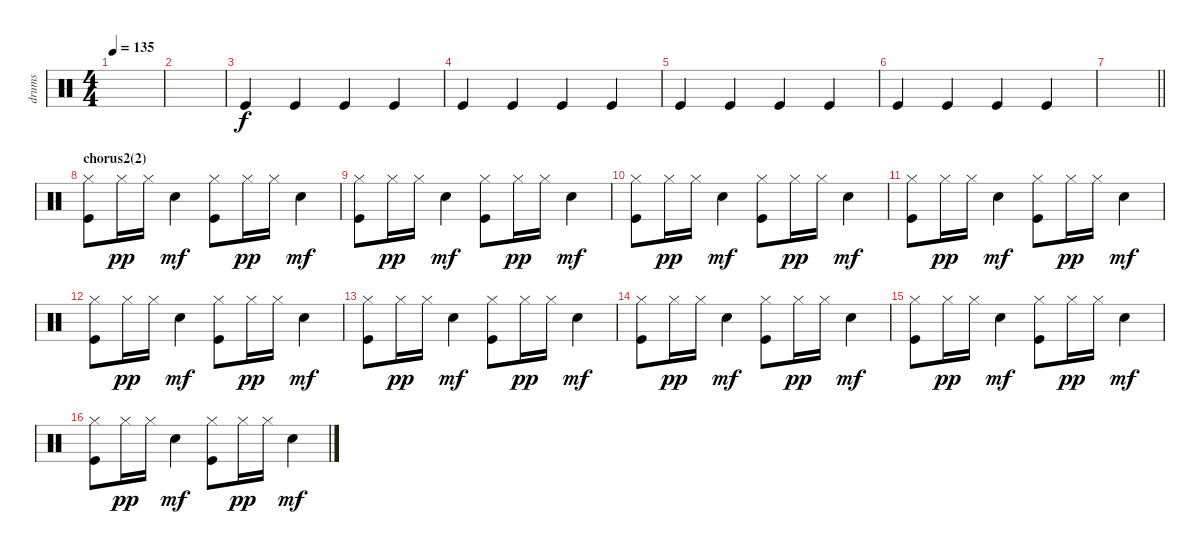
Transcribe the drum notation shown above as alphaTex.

\track ("drums" "drums") {instrument percussion}
\staff {score}
\articulation defaults
\ts (4 4)
\tempo 135
\clef neutral
\ks c
|
|
"Kick (hit)".4 "Kick (hit)".4 "Kick (hit)".4 "Kick (hit)".4 |
"Kick (hit)".4 "Kick (hit)".4 "Kick (hit)".4 "Kick (hit)".4 |
"Kick (hit)".4 "Kick (hit)".4 "Kick (hit)".4 "Kick (hit)".4 |
"Kick (hit)".4 "Kick (hit)".4 "Kick (hit)".4 "Kick (hit)".4 |
\barLineRight lightlight
|
\section ("" "chorus2(2)")
("Hi-Hat (closed)" "Kick (hit)").8 "Hi-Hat (closed)".16{dy pp} "Hi-Hat (closed)".16 "Snare (hit) 2".4{dy mf} ("Hi-Hat (closed)" "Kick (hit)").8 "Hi-Hat (closed)".16{dy pp} "Hi-Hat (closed)".16 "Snare (hit) 2".4{dy mf} |
("Hi-Hat (closed)" "Kick (hit)").8 "Hi-Hat (closed)".16{dy pp} "Hi-Hat (closed)".16 "Snare (hit) 2".4{dy mf} ("Hi-Hat (closed)" "Kick (hit)").8 "Hi-Hat (closed)".16{dy pp} "Hi-Hat (closed)".16 "Snare (hit) 2".4{dy mf} |
("Hi-Hat (closed)" "Kick (hit)").8 "Hi-Hat (closed)".16{dy pp} "Hi-Hat (closed)".16 "Snare (hit) 2".4{dy mf} ("Hi-Hat (closed)" "Kick (hit)").8 "Hi-Hat (closed)".16{dy pp} "Hi-Hat (closed)".16 "Snare (hit) 2".4{dy mf} |
("Hi-Hat (closed)" "Kick (hit)").8 "Hi-Hat (closed)".16{dy pp} "Hi-Hat (closed)".16 "Snare (hit) 2".4{dy mf} ("Hi-Hat (closed)" "Kick (hit)").8 "Hi-Hat (closed)".16{dy pp} "Hi-Hat (closed)".16 "Snare (hit) 2".4{dy mf} |
("Hi-Hat (closed)" "Kick (hit)").8 "Hi-Hat (closed)".16{dy pp} "Hi-Hat (closed)".16 "Snare (hit) 2".4{dy mf} ("Hi-Hat (closed)" "Kick (hit)").8 "Hi-Hat (closed)".16{dy pp} "Hi-Hat (closed)".16 "Snare (hit) 2".4{dy mf} |
("Hi-Hat (closed)" "Kick (hit)").8 "Hi-Hat (closed)".16{dy pp} "Hi-Hat (closed)".16 "Snare (hit) 2".4{dy mf} ("Hi-Hat (closed)" "Kick (hit)").8 "Hi-Hat (closed)".16{dy pp} "Hi-Hat (closed)".16 "Snare (hit) 2".4{dy mf} |
("Hi-Hat (closed)" "Kick (hit)").8 "Hi-Hat (closed)".16{dy pp} "Hi-Hat (closed)".16 "Snare (hit) 2".4{dy mf} ("Hi-Hat (closed)" "Kick (hit)").8 "Hi-Hat (closed)".16{dy pp} "Hi-Hat (closed)".16 "Snare (hit) 2".4{dy mf} |
("Hi-Hat (closed)" "Kick (hit)").8 "Hi-Hat (closed)".16{dy pp} "Hi-Hat (closed)".16 "Snare (hit) 2".4{dy mf} ("Hi-Hat (closed)" "Kick (hit)").8 "Hi-Hat (closed)".16{dy pp} "Hi-Hat (closed)".16 "Snare (hit) 2".4{dy mf} |
("Hi-Hat (closed)" "Kick (hit)").8 "Hi-Hat (closed)".16{dy pp} "Hi-Hat (closed)".16 "Snare (hit) 2".4{dy mf} ("Hi-Hat (closed)" "Kick (hit)").8 "Hi-Hat (closed)".16{dy pp} "Hi-Hat (closed)".16 "Snare (hit) 2".4{dy mf}
